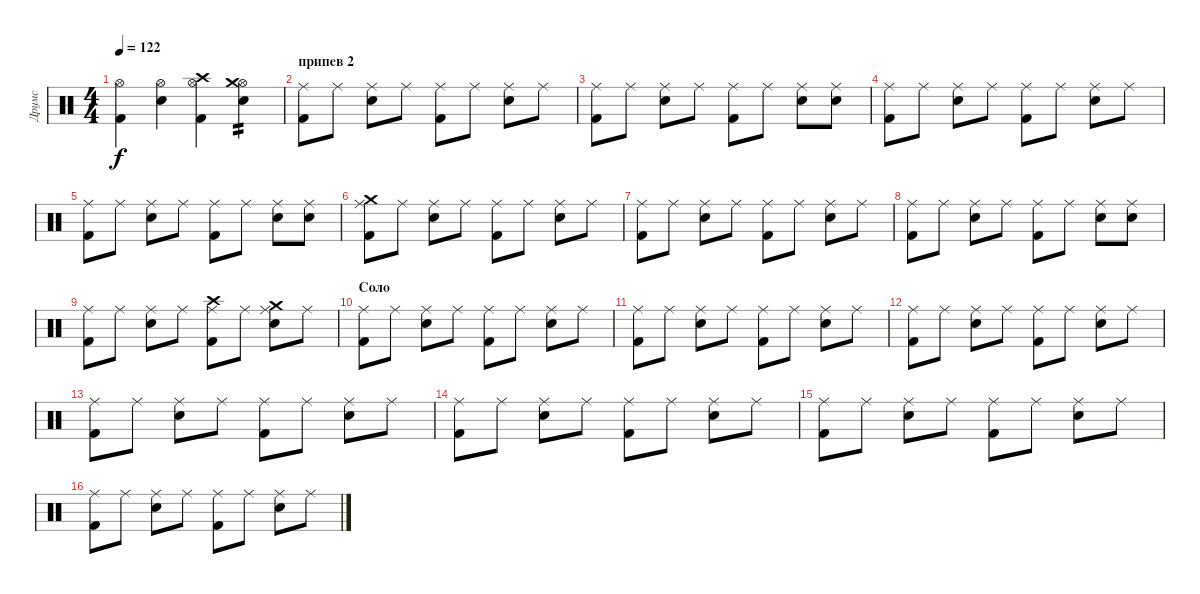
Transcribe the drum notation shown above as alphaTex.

\track ("Друмс" "Друмс") {instrument percussion}
\staff {score}
\articulation defaults
\ts (4 4)
\tempo 122
\clef neutral
\ks c
("Hi-Hat (open)" "Kick (hit) 2").4{dy f} ("Hi-Hat (open)" "Snare (hit) 2").4 ("Hi-Hat (open)" "Kick (hit) 2" "Crash high (hit)").4 ("Hi-Hat (open)" "Snare (hit) 2" "Crash medium (hit)").4{tp 2} |
\section ("" "припев 2")
("Ride (middle)" "Kick (hit) 2").8 "Ride (middle)".8 ("Ride (middle)" "Snare (hit) 2").8 "Ride (middle)".8 ("Ride (middle)" "Kick (hit) 2").8 "Ride (middle)".8 ("Ride (middle)" "Snare (hit) 2").8 "Ride (middle)".8 |
("Ride (middle)" "Kick (hit) 2").8 "Ride (middle)".8 ("Ride (middle)" "Snare (hit) 2").8 "Ride (middle)".8 ("Ride (middle)" "Kick (hit) 2").8 "Ride (middle)".8 ("Ride (middle)" "Snare (hit) 2").8 ("Ride (middle)" "Snare (hit) 2").8 |
("Ride (middle)" "Kick (hit) 2").8 "Ride (middle)".8 ("Ride (middle)" "Snare (hit) 2").8 "Ride (middle)".8 ("Ride (middle)" "Kick (hit) 2").8 "Ride (middle)".8 ("Ride (middle)" "Snare (hit) 2").8 "Ride (middle)".8 |
("Ride (middle)" "Kick (hit) 2").8 "Ride (middle)".8 ("Ride (middle)" "Snare (hit) 2").8 "Ride (middle)".8 ("Ride (middle)" "Kick (hit) 2").8 "Ride (middle)".8 ("Ride (middle)" "Snare (hit) 2").8 ("Ride (middle)" "Snare (hit) 2").8 |
("Ride (middle)" "Kick (hit) 2" "Crash medium (hit)").8 "Ride (middle)".8 ("Ride (middle)" "Snare (hit) 2").8 "Ride (middle)".8 ("Ride (middle)" "Kick (hit) 2").8 "Ride (middle)".8 ("Ride (middle)" "Snare (hit) 2").8 "Ride (middle)".8 |
("Ride (middle)" "Kick (hit) 2").8 "Ride (middle)".8 ("Ride (middle)" "Snare (hit) 2").8 "Ride (middle)".8 ("Ride (middle)" "Kick (hit) 2").8 "Ride (middle)".8 ("Ride (middle)" "Snare (hit) 2").8 "Ride (middle)".8 |
("Ride (middle)" "Kick (hit) 2").8 "Ride (middle)".8 ("Ride (middle)" "Snare (hit) 2").8 "Ride (middle)".8 ("Ride (middle)" "Kick (hit) 2").8 "Ride (middle)".8 ("Ride (middle)" "Snare (hit) 2").8 ("Ride (middle)" "Snare (hit) 2").8 |
("Ride (middle)" "Kick (hit) 2").8 "Ride (middle)".8 ("Ride (middle)" "Snare (hit) 2").8 "Ride (middle)".8 ("Ride (middle)" "Kick (hit) 2" "Crash high (hit)").8 "Ride (middle)".8 ("Ride (middle)" "Snare (hit) 2" "Crash medium (hit)").8 "Ride (middle)".8 |
\section ("" "Соло")
("Ride (middle)" "Kick (hit) 2").8 "Ride (middle)".8 ("Ride (middle)" "Snare (hit) 2").8 "Ride (middle)".8 ("Ride (middle)" "Kick (hit) 2").8 "Ride (middle)".8 ("Ride (middle)" "Snare (hit) 2").8 "Ride (middle)".8 |
("Ride (middle)" "Kick (hit) 2").8 "Ride (middle)".8 ("Ride (middle)" "Snare (hit) 2").8 "Ride (middle)".8 ("Ride (middle)" "Kick (hit) 2").8 "Ride (middle)".8 ("Ride (middle)" "Snare (hit) 2").8 "Ride (middle)".8 |
("Ride (middle)" "Kick (hit) 2").8 "Ride (middle)".8 ("Ride (middle)" "Snare (hit) 2").8 "Ride (middle)".8 ("Ride (middle)" "Kick (hit) 2").8 "Ride (middle)".8 ("Ride (middle)" "Snare (hit) 2").8 "Ride (middle)".8 |
("Ride (middle)" "Kick (hit) 2").8 "Ride (middle)".8 ("Ride (middle)" "Snare (hit) 2").8 "Ride (middle)".8 ("Ride (middle)" "Kick (hit) 2").8 "Ride (middle)".8 ("Ride (middle)" "Snare (hit) 2").8 "Ride (middle)".8 |
("Ride (middle)" "Kick (hit) 2").8 "Ride (middle)".8 ("Ride (middle)" "Snare (hit) 2").8 "Ride (middle)".8 ("Ride (middle)" "Kick (hit) 2").8 "Ride (middle)".8 ("Ride (middle)" "Snare (hit) 2").8 "Ride (middle)".8 |
("Ride (middle)" "Kick (hit) 2").8 "Ride (middle)".8 ("Ride (middle)" "Snare (hit) 2").8 "Ride (middle)".8 ("Ride (middle)" "Kick (hit) 2").8 "Ride (middle)".8 ("Ride (middle)" "Snare (hit) 2").8 "Ride (middle)".8 |
("Ride (middle)" "Kick (hit) 2").8 "Ride (middle)".8 ("Ride (middle)" "Snare (hit) 2").8 "Ride (middle)".8 ("Ride (middle)" "Kick (hit) 2").8 "Ride (middle)".8 ("Ride (middle)" "Snare (hit) 2").8 "Ride (middle)".8
